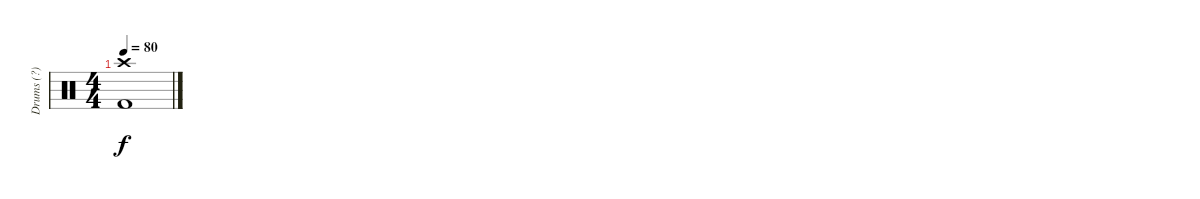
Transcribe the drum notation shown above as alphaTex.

\track ("Drums (?)" "Drums (?)") {instrument percussion}
\staff {score}
\articulation defaults
\ts (4 4)
\tempo 80
\clef neutral
\ks c
("Crash high (hit)" "Kick (hit) 2").1{dy f}
